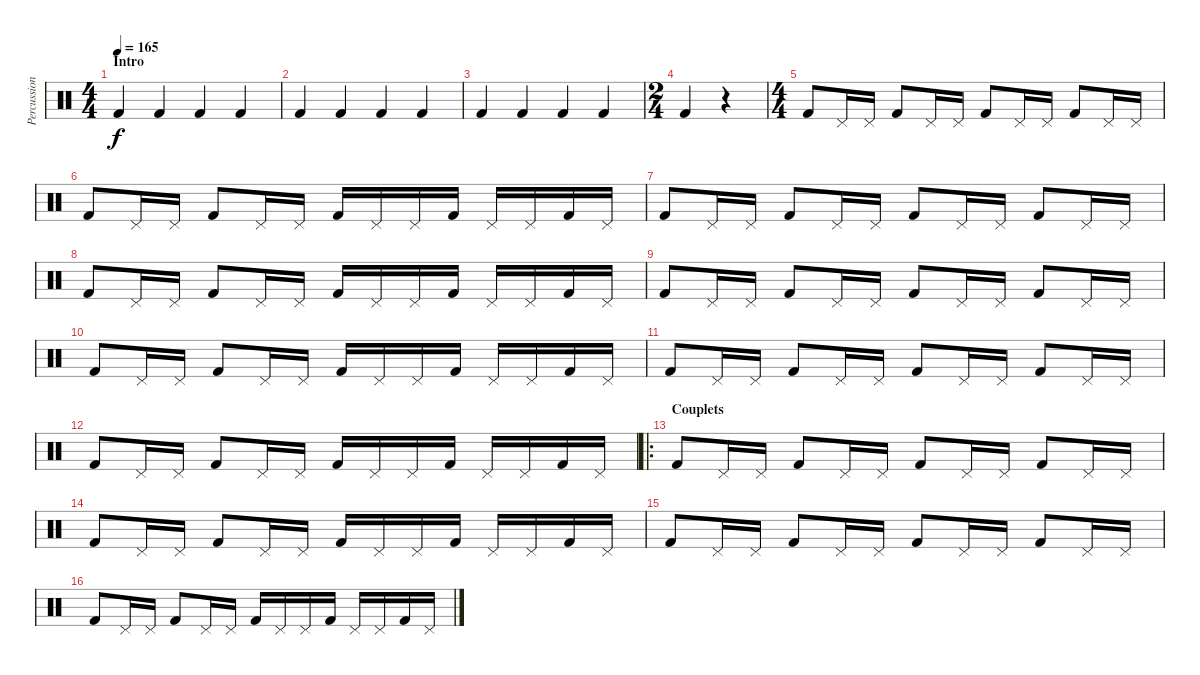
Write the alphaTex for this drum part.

\track ("Percussions" "Percussion") {instrument percussion}
\staff {score}
\articulation defaults
\ts (4 4)
\section ("" "Intro")
\tempo 165
\clef neutral
\ks c "Kick (hit) 2".4{dy f} "Kick (hit) 2".4 "Kick (hit) 2".4 "Kick (hit) 2".4
|
"Kick (hit) 2".4 "Kick (hit) 2".4 "Kick (hit) 2".4 "Kick (hit) 2".4 |
"Kick (hit) 2".4 "Kick (hit) 2".4 "Kick (hit) 2".4 "Kick (hit) 2".4 |
\ts (2 4)
"Kick (hit) 2".4 r.4 |
\ts (4 4)
"Kick (hit) 2".8 "Pedal Hi-Hat (hit)".16 "Pedal Hi-Hat (hit)".16 "Kick (hit) 2".8 "Pedal Hi-Hat (hit)".16 "Pedal Hi-Hat (hit)".16 "Kick (hit) 2".8 "Pedal Hi-Hat (hit)".16 "Pedal Hi-Hat (hit)".16 "Kick (hit) 2".8 "Pedal Hi-Hat (hit)".16 "Pedal Hi-Hat (hit)".16 |
"Kick (hit) 2".8 "Pedal Hi-Hat (hit)".16 "Pedal Hi-Hat (hit)".16 "Kick (hit) 2".8 "Pedal Hi-Hat (hit)".16 "Pedal Hi-Hat (hit)".16 "Kick (hit) 2".16 "Pedal Hi-Hat (hit)".16 "Pedal Hi-Hat (hit)".16 "Kick (hit) 2".16 "Pedal Hi-Hat (hit)".16 "Pedal Hi-Hat (hit)".16 "Kick (hit) 2".16 "Pedal Hi-Hat (hit)".16 |
"Kick (hit) 2".8 "Pedal Hi-Hat (hit)".16 "Pedal Hi-Hat (hit)".16 "Kick (hit) 2".8 "Pedal Hi-Hat (hit)".16 "Pedal Hi-Hat (hit)".16 "Kick (hit) 2".8 "Pedal Hi-Hat (hit)".16 "Pedal Hi-Hat (hit)".16 "Kick (hit) 2".8 "Pedal Hi-Hat (hit)".16 "Pedal Hi-Hat (hit)".16 |
"Kick (hit) 2".8 "Pedal Hi-Hat (hit)".16 "Pedal Hi-Hat (hit)".16 "Kick (hit) 2".8 "Pedal Hi-Hat (hit)".16 "Pedal Hi-Hat (hit)".16 "Kick (hit) 2".16 "Pedal Hi-Hat (hit)".16 "Pedal Hi-Hat (hit)".16 "Kick (hit) 2".16 "Pedal Hi-Hat (hit)".16 "Pedal Hi-Hat (hit)".16 "Kick (hit) 2".16 "Pedal Hi-Hat (hit)".16 |
"Kick (hit) 2".8 "Pedal Hi-Hat (hit)".16 "Pedal Hi-Hat (hit)".16 "Kick (hit) 2".8 "Pedal Hi-Hat (hit)".16 "Pedal Hi-Hat (hit)".16 "Kick (hit) 2".8 "Pedal Hi-Hat (hit)".16 "Pedal Hi-Hat (hit)".16 "Kick (hit) 2".8 "Pedal Hi-Hat (hit)".16 "Pedal Hi-Hat (hit)".16 |
"Kick (hit) 2".8 "Pedal Hi-Hat (hit)".16 "Pedal Hi-Hat (hit)".16 "Kick (hit) 2".8 "Pedal Hi-Hat (hit)".16 "Pedal Hi-Hat (hit)".16 "Kick (hit) 2".16 "Pedal Hi-Hat (hit)".16 "Pedal Hi-Hat (hit)".16 "Kick (hit) 2".16 "Pedal Hi-Hat (hit)".16 "Pedal Hi-Hat (hit)".16 "Kick (hit) 2".16 "Pedal Hi-Hat (hit)".16 |
"Kick (hit) 2".8 "Pedal Hi-Hat (hit)".16 "Pedal Hi-Hat (hit)".16 "Kick (hit) 2".8 "Pedal Hi-Hat (hit)".16 "Pedal Hi-Hat (hit)".16 "Kick (hit) 2".8 "Pedal Hi-Hat (hit)".16 "Pedal Hi-Hat (hit)".16 "Kick (hit) 2".8 "Pedal Hi-Hat (hit)".16 "Pedal Hi-Hat (hit)".16 |
"Kick (hit) 2".8 "Pedal Hi-Hat (hit)".16 "Pedal Hi-Hat (hit)".16 "Kick (hit) 2".8 "Pedal Hi-Hat (hit)".16 "Pedal Hi-Hat (hit)".16 "Kick (hit) 2".16 "Pedal Hi-Hat (hit)".16 "Pedal Hi-Hat (hit)".16 "Kick (hit) 2".16 "Pedal Hi-Hat (hit)".16 "Pedal Hi-Hat (hit)".16 "Kick (hit) 2".16 "Pedal Hi-Hat (hit)".16 |
\ro
\section ("" "Couplets")
"Kick (hit) 2".8 "Pedal Hi-Hat (hit)".16 "Pedal Hi-Hat (hit)".16 "Kick (hit) 2".8 "Pedal Hi-Hat (hit)".16 "Pedal Hi-Hat (hit)".16 "Kick (hit) 2".8 "Pedal Hi-Hat (hit)".16 "Pedal Hi-Hat (hit)".16 "Kick (hit) 2".8 "Pedal Hi-Hat (hit)".16 "Pedal Hi-Hat (hit)".16 |
"Kick (hit) 2".8 "Pedal Hi-Hat (hit)".16 "Pedal Hi-Hat (hit)".16 "Kick (hit) 2".8 "Pedal Hi-Hat (hit)".16 "Pedal Hi-Hat (hit)".16 "Kick (hit) 2".16 "Pedal Hi-Hat (hit)".16 "Pedal Hi-Hat (hit)".16 "Kick (hit) 2".16 "Pedal Hi-Hat (hit)".16 "Pedal Hi-Hat (hit)".16 "Kick (hit) 2".16 "Pedal Hi-Hat (hit)".16 |
"Kick (hit) 2".8 "Pedal Hi-Hat (hit)".16 "Pedal Hi-Hat (hit)".16 "Kick (hit) 2".8 "Pedal Hi-Hat (hit)".16 "Pedal Hi-Hat (hit)".16 "Kick (hit) 2".8 "Pedal Hi-Hat (hit)".16 "Pedal Hi-Hat (hit)".16 "Kick (hit) 2".8 "Pedal Hi-Hat (hit)".16 "Pedal Hi-Hat (hit)".16 |
"Kick (hit) 2".8 "Pedal Hi-Hat (hit)".16 "Pedal Hi-Hat (hit)".16 "Kick (hit) 2".8 "Pedal Hi-Hat (hit)".16 "Pedal Hi-Hat (hit)".16 "Kick (hit) 2".16 "Pedal Hi-Hat (hit)".16 "Pedal Hi-Hat (hit)".16 "Kick (hit) 2".16 "Pedal Hi-Hat (hit)".16 "Pedal Hi-Hat (hit)".16 "Kick (hit) 2".16 "Pedal Hi-Hat (hit)".16
